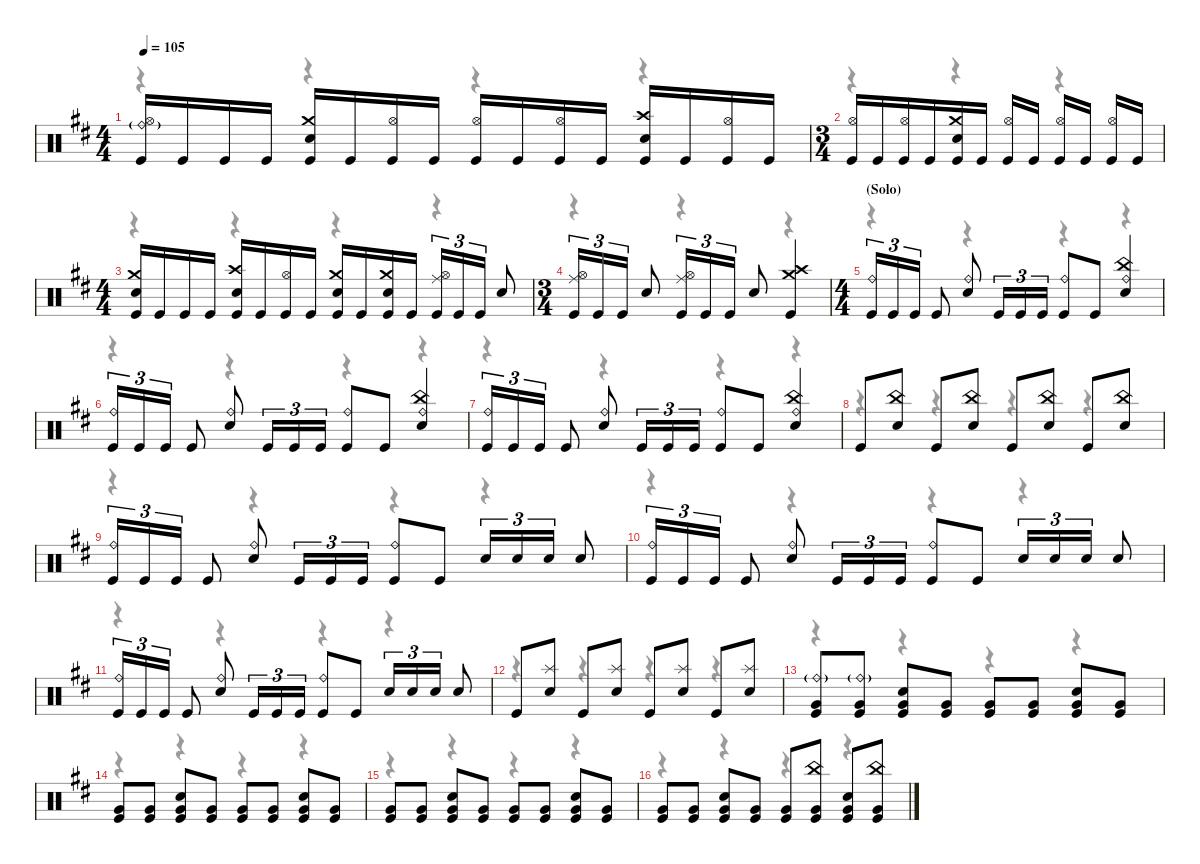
\defaultSystemsLayout 4
\hideDynamics
\bracketExtendMode nobrackets
\singleTrackTrackNamePolicy hidden
\multiTrackTrackNamePolicy hidden
\firstSystemTrackNameMode fullname
\firstSystemTrackNameOrientation horizontal
\otherSystemsTrackNameOrientation horizontal
\track ("Drums" "drm.") {instrument percussion}
\staff {score}
\articulation defaults
\voice
\ts (4 4)
\tempo 105
\clef neutral
\ks bminor
("Ride (bell)"{g acc forcenatural} "Hi-Hat (open)"{acc forcenatural} "Kick (hit)"{acc forcenatural}).16{dy mp beam Up} "Kick (hit)"{acc forcenatural}.16{dy f beam Up} "Kick (hit)"{acc forcenatural}.16{beam Up} "Kick (hit)"{acc forcenatural}.16{beam Up} ("Crash medium (hit)"{acc forcenatural} "Snare (hit) 2"{acc forcenatural} "Kick (hit)"{acc forcenatural}).16{dy mp beam Up} "Kick (hit)"{acc forcenatural}.16{dy f beam Up} ("Hi-Hat (open)"{acc forcenatural} "Kick (hit)"{acc forcenatural}).16{dy pp beam Up} "Kick (hit)"{acc forcenatural}.16{dy f beam Up} ("Hi-Hat (open)"{acc forcenatural} "Kick (hit)"{acc forcenatural}).16{dy mp beam Up} "Kick (hit)"{acc forcenatural}.16{dy f beam Up} ("Hi-Hat (open)"{acc forcenatural} "Kick (hit)"{acc forcenatural}).16{dy pp beam Up} "Kick (hit)"{acc forcenatural}.16{dy f beam Up} ("Crash high (hit)"{acc forcenatural} "Snare (hit) 2"{acc forcenatural} "Kick (hit)"{acc forcenatural}).16{dy mp beam Up} "Kick (hit)"{acc forcenatural}.16{dy f beam Up} ("Hi-Hat (open)"{acc forcenatural} "Kick (hit)"{acc forcenatural}).16{dy pp beam Up} "Kick (hit)"{acc forcenatural}.16{dy f beam Up} |
\ts (3 4)
\beaming (8 3 1 1 1)
("Hi-Hat (open)"{acc forcenatural} "Kick (hit)"{acc forcenatural}).16{dy mp beam Up} "Kick (hit)"{acc forcenatural}.16{dy f beam Up} ("Hi-Hat (open)"{acc forcenatural} "Kick (hit)"{acc forcenatural}).16{dy pp beam Up} "Kick (hit)"{acc forcenatural}.16{dy f beam Up} ("Crash medium (hit)"{acc forcenatural} "Snare (hit) 2"{acc forcenatural} "Kick (hit)"{acc forcenatural}).16{dy mp beam Up} "Kick (hit)"{acc forcenatural}.16{dy f beam Up} ("Hi-Hat (open)"{acc forcenatural} "Kick (hit)"{acc forcenatural}).16{dy pp beam Up} "Kick (hit)"{acc forcenatural}.16{dy f beam Up} ("Hi-Hat (open)"{acc forcenatural} "Kick (hit)"{acc forcenatural}).16{dy mp beam Up} "Kick (hit)"{acc forcenatural}.16{dy f beam Up} ("Hi-Hat (open)"{acc forcenatural} "Kick (hit)"{acc forcenatural}).16{dy pp beam Up} "Kick (hit)"{acc forcenatural}.16{dy f beam Up} |
\ts (4 4)
\beaming (8 2 2 2 2)
("Crash medium (hit)"{acc forcenatural} "Snare (hit) 2"{acc forcenatural} "Kick (hit)"{acc forcenatural}).16{dy mp beam Up} "Kick (hit)"{acc forcenatural}.16{dy f beam Up} "Kick (hit)"{acc forcenatural}.16{beam Up} "Kick (hit)"{acc forcenatural}.16{beam Up} ("Crash high (hit)"{acc forcenatural} "Snare (hit) 2"{acc forcenatural} "Kick (hit)"{acc forcenatural}).16{dy mp beam Up} "Kick (hit)"{acc forcenatural}.16{dy f beam Up} ("Hi-Hat (open)"{acc forcenatural} "Kick (hit)"{acc forcenatural}).16{dy pp beam Up} "Kick (hit)"{acc forcenatural}.16{dy f beam Up} ("Crash medium (hit)"{acc forcenatural} "Snare (hit) 2"{acc forcenatural} "Kick (hit)"{acc forcenatural}).16{dy mp beam Up} "Kick (hit)"{acc forcenatural}.16{dy f beam Up} ("Crash medium (hit)"{acc forcenatural} "Snare (hit) 2"{acc forcenatural} "Kick (hit)"{acc forcenatural}).16{dy mp beam Up} "Kick (hit)"{acc forcenatural}.16{dy f beam Up} ("Ride (middle)"{acc forcenatural} "Hi-Hat (open)"{acc forcenatural} "Kick (hit)"{acc forcenatural}).16{tu (3 2) dy mf beam Up} "Kick (hit)"{acc forcenatural}.16{tu (3 2) dy f beam Up} "Kick (hit)"{acc forcenatural}.16{tu (3 2) beam Up} "Snare (hit) 2"{acc forcenatural}.8{beam Up} |
\ts (3 4)
\beaming (8 3 1 1 1)
("Ride (middle)"{acc forcenatural} "Hi-Hat (open)"{acc forcenatural} "Kick (hit)"{acc forcenatural}).16{tu (3 2) dy mf beam Up} "Kick (hit)"{acc forcenatural}.16{tu (3 2) dy f beam Up} "Kick (hit)"{acc forcenatural}.16{tu (3 2) beam Up} "Snare (hit) 2"{acc forcenatural}.8{beam Up} ("Ride (middle)"{acc forcenatural} "Hi-Hat (open)"{acc forcenatural} "Kick (hit)"{acc forcenatural}).16{tu (3 2) dy mf beam Up} "Kick (hit)"{acc forcenatural}.16{tu (3 2) dy f beam Up} "Kick (hit)"{acc forcenatural}.16{tu (3 2) beam Up} "Snare (hit) 2"{acc forcenatural}.8{beam Up} ("Crash high (hit)"{acc forcenatural} "Crash medium (hit)"{acc forcenatural} "Kick (hit)"{acc forcenatural}).4{dy mp beam Up} |
\ts (4 4)
\beaming (8 2 2 2 2)
\section ("" "(Solo)")
("Ride (bell)"{acc forcenatural} "Kick (hit)"{acc forcenatural}).16{tu (3 2) dy mf beam Up} "Kick (hit)"{acc forcenatural}.16{tu (3 2) dy f beam Up} "Kick (hit)"{acc forcenatural}.16{tu (3 2) beam Up} "Kick (hit)"{acc forcenatural}.8{beam Up} ("Ride (bell)"{acc forcenatural} "Snare (hit) 2"{acc forcenatural}).8{dy mf beam Up} "Kick (hit)"{acc forcenatural}.16{tu (3 2) dy f beam Up} "Kick (hit)"{acc forcenatural}.16{tu (3 2) beam Up} "Kick (hit)"{acc forcenatural}.16{tu (3 2) beam Up} ("Ride (bell)"{acc forcenatural} "Kick (hit)"{acc forcenatural}).8{dy mf beam Up} "Kick (hit)"{acc forcenatural}.8{dy f beam Up} ("Ride (bell)"{acc forcenatural} "China (hit)"{acc forcenatural} "Snare (hit) 2"{acc forcenatural}).4{dy mf beam Up} |
("Ride (bell)"{acc forcenatural} "Kick (hit)"{acc forcenatural}).16{tu (3 2) beam Up} "Kick (hit)"{acc forcenatural}.16{tu (3 2) dy f beam Up} "Kick (hit)"{acc forcenatural}.16{tu (3 2) beam Up} "Kick (hit)"{acc forcenatural}.8{beam Up} ("Ride (bell)"{acc forcenatural} "Snare (hit) 2"{acc forcenatural}).8{dy mf beam Up} "Kick (hit)"{acc forcenatural}.16{tu (3 2) dy f beam Up} "Kick (hit)"{acc forcenatural}.16{tu (3 2) beam Up} "Kick (hit)"{acc forcenatural}.16{tu (3 2) beam Up} ("Ride (bell)"{acc forcenatural} "Kick (hit)"{acc forcenatural}).8{dy mf beam Up} "Kick (hit)"{acc forcenatural}.8{dy f beam Up} ("Ride (bell)"{acc forcenatural} "China (hit)"{acc forcenatural} "Snare (hit) 2"{acc forcenatural}).4{dy mf beam Up} |
("Ride (bell)"{acc forcenatural} "Kick (hit)"{acc forcenatural}).16{tu (3 2) beam Up} "Kick (hit)"{acc forcenatural}.16{tu (3 2) dy f beam Up} "Kick (hit)"{acc forcenatural}.16{tu (3 2) beam Up} "Kick (hit)"{acc forcenatural}.8{beam Up} ("Ride (bell)"{acc forcenatural} "Snare (hit) 2"{acc forcenatural}).8{dy mf beam Up} "Kick (hit)"{acc forcenatural}.16{tu (3 2) dy f beam Up} "Kick (hit)"{acc forcenatural}.16{tu (3 2) beam Up} "Kick (hit)"{acc forcenatural}.16{tu (3 2) beam Up} ("Ride (bell)"{acc forcenatural} "Kick (hit)"{acc forcenatural}).8{dy mf beam Up} "Kick (hit)"{acc forcenatural}.8{dy f beam Up} ("Ride (bell)"{acc forcenatural} "China (hit)"{acc forcenatural} "Snare (hit) 2"{acc forcenatural}).4{dy mf beam Up} |
"Kick (hit)"{acc forcenatural}.8{dy f beam Up} ("China (hit)"{acc forcenatural} "Snare (hit) 2"{acc forcenatural}).8{beam Up} "Kick (hit)"{acc forcenatural}.8{beam Up} ("China (hit)"{acc forcenatural} "Snare (hit) 2"{acc forcenatural}).8{beam Up} "Kick (hit)"{acc forcenatural}.8{beam Up} ("China (hit)"{acc forcenatural} "Snare (hit) 2"{acc forcenatural}).8{beam Up} "Kick (hit)"{acc forcenatural}.8{beam Up} ("China (hit)"{acc forcenatural} "Snare (hit) 2"{acc forcenatural}).8{beam Up} |
("Ride (bell)"{acc forcenatural} "Kick (hit)"{acc forcenatural}).16{tu (3 2) dy mf beam Up} "Kick (hit)"{acc forcenatural}.16{tu (3 2) dy f beam Up} "Kick (hit)"{acc forcenatural}.16{tu (3 2) beam Up} "Kick (hit)"{acc forcenatural}.8{beam Up} ("Ride (bell)"{acc forcenatural} "Snare (hit) 2"{acc forcenatural}).8{dy mf beam Up} "Kick (hit)"{acc forcenatural}.16{tu (3 2) dy f beam Up} "Kick (hit)"{acc forcenatural}.16{tu (3 2) beam Up} "Kick (hit)"{acc forcenatural}.16{tu (3 2) beam Up} ("Ride (bell)"{acc forcenatural} "Kick (hit)"{acc forcenatural}).8{dy mf beam Up} "Kick (hit)"{acc forcenatural}.8{dy f beam Up} "Snare (hit) 2"{acc forcenatural}.16{tu (3 2) dy mf beam Up} "Snare (hit) 2"{acc forcenatural}.16{tu (3 2) beam Up} "Snare (hit) 2"{acc forcenatural}.16{tu (3 2) beam Up} "Snare (hit) 2"{acc forcenatural}.8{beam Up} |
("Ride (bell)"{acc forcenatural} "Kick (hit)"{acc forcenatural}).16{tu (3 2) beam Up} "Kick (hit)"{acc forcenatural}.16{tu (3 2) dy f beam Up} "Kick (hit)"{acc forcenatural}.16{tu (3 2) beam Up} "Kick (hit)"{acc forcenatural}.8{beam Up} ("Ride (bell)"{acc forcenatural} "Snare (hit) 2"{acc forcenatural}).8{dy mf beam Up} "Kick (hit)"{acc forcenatural}.16{tu (3 2) dy f beam Up} "Kick (hit)"{acc forcenatural}.16{tu (3 2) beam Up} "Kick (hit)"{acc forcenatural}.16{tu (3 2) beam Up} ("Ride (bell)"{acc forcenatural} "Kick (hit)"{acc forcenatural}).8{dy mf beam Up} "Kick (hit)"{acc forcenatural}.8{dy f beam Up} "Snare (hit) 2"{acc forcenatural}.16{tu (3 2) dy mf beam Up} "Snare (hit) 2"{acc forcenatural}.16{tu (3 2) beam Up} "Snare (hit) 2"{acc forcenatural}.16{tu (3 2) beam Up} "Snare (hit) 2"{acc forcenatural}.8{beam Up} |
("Ride (bell)"{acc forcenatural} "Kick (hit)"{acc forcenatural}).16{tu (3 2) beam Up} "Kick (hit)"{acc forcenatural}.16{tu (3 2) dy f beam Up} "Kick (hit)"{acc forcenatural}.16{tu (3 2) beam Up} "Kick (hit)"{acc forcenatural}.8{beam Up} ("Ride (bell)"{acc forcenatural} "Snare (hit) 2"{acc forcenatural}).8{dy mf beam Up} "Kick (hit)"{acc forcenatural}.16{tu (3 2) dy f beam Up} "Kick (hit)"{acc forcenatural}.16{tu (3 2) beam Up} "Kick (hit)"{acc forcenatural}.16{tu (3 2) beam Up} ("Ride (bell)"{acc forcenatural} "Kick (hit)"{acc forcenatural}).8{dy mf beam Up} "Kick (hit)"{acc forcenatural}.8{dy f beam Up} "Snare (hit) 2"{acc forcenatural}.16{tu (3 2) beam Up} "Snare (hit) 2"{acc forcenatural}.16{tu (3 2) beam Up} "Snare (hit) 2"{acc forcenatural}.16{tu (3 2) dy mf beam Up} "Snare (hit) 2"{acc forcenatural}.8{beam Up} |
"Kick (hit)"{acc forcenatural}.8{dy f beam Up} ("Splash (hit)"{acc forcenatural} "Snare (hit) 2"{acc forcenatural}).8{beam Up} "Kick (hit)"{acc forcenatural}.8{beam Up} ("Splash (hit)"{acc forcenatural} "Snare (hit) 2"{acc forcenatural}).8{beam Up} "Kick (hit)"{acc forcenatural}.8{beam Up} ("Splash (hit)"{acc forcenatural} "Snare (hit) 2"{acc forcenatural}).8{beam Up} "Kick (hit)"{acc forcenatural}.8{beam Up} ("Splash (hit)"{acc forcenatural} "Snare (hit) 2"{acc forcenatural}).8{beam Up} |
("Ride (bell)"{g acc forcenatural} "Very Low Tom (hit)"{acc forcenatural} "Kick (hit)"{acc forcenatural}).8{beam Up} ("Ride (bell)"{g acc forcenatural} "Very Low Tom (hit)"{acc forcenatural} "Kick (hit)"{acc forcenatural}).8{dy p beam Up} ("Snare (hit) 2"{acc forcenatural} "Very Low Tom (hit)"{acc forcenatural} "Kick (hit)"{acc forcenatural}).8{dy f beam Up} ("Very Low Tom (hit)"{acc forcenatural} "Kick (hit)"{acc forcenatural}).8{dy p beam Up} ("Very Low Tom (hit)"{acc forcenatural} "Kick (hit)"{acc forcenatural}).8{dy f beam Up} ("Very Low Tom (hit)"{acc forcenatural} "Kick (hit)"{acc forcenatural}).8{dy p beam Up} ("Snare (hit) 2"{acc forcenatural} "Very Low Tom (hit)"{acc forcenatural} "Kick (hit)"{acc forcenatural}).8{dy f beam Up} ("Very Low Tom (hit)"{acc forcenatural} "Kick (hit)"{acc forcenatural}).8{dy p beam Up} |
("Very Low Tom (hit)"{acc forcenatural} "Kick (hit)"{acc forcenatural}).8{dy f beam Up} ("Very Low Tom (hit)"{acc forcenatural} "Kick (hit)"{acc forcenatural}).8{dy p beam Up} ("Snare (hit) 2"{acc forcenatural} "Very Low Tom (hit)"{acc forcenatural} "Kick (hit)"{acc forcenatural}).8{dy f beam Up} ("Very Low Tom (hit)"{acc forcenatural} "Kick (hit)"{acc forcenatural}).8{dy p beam Up} ("Very Low Tom (hit)"{acc forcenatural} "Kick (hit)"{acc forcenatural}).8{dy f beam Up} ("Very Low Tom (hit)"{acc forcenatural} "Kick (hit)"{acc forcenatural}).8{dy p beam Up} ("Snare (hit) 2"{acc forcenatural} "Very Low Tom (hit)"{acc forcenatural} "Kick (hit)"{acc forcenatural}).8{dy f beam Up} ("Very Low Tom (hit)"{acc forcenatural} "Kick (hit)"{acc forcenatural}).8{dy p beam Up} |
("Very Low Tom (hit)"{acc forcenatural} "Kick (hit)"{acc forcenatural}).8{dy f beam Up} ("Very Low Tom (hit)"{acc forcenatural} "Kick (hit)"{acc forcenatural}).8{dy p beam Up} ("Snare (hit) 2"{acc forcenatural} "Very Low Tom (hit)"{acc forcenatural} "Kick (hit)"{acc forcenatural}).8{dy f beam Up} ("Very Low Tom (hit)"{acc forcenatural} "Kick (hit)"{acc forcenatural}).8{dy p beam Up} ("Very Low Tom (hit)"{acc forcenatural} "Kick (hit)"{acc forcenatural}).8{dy f beam Up} ("Very Low Tom (hit)"{acc forcenatural} "Kick (hit)"{acc forcenatural}).8{dy p beam Up} ("Snare (hit) 2"{acc forcenatural} "Very Low Tom (hit)"{acc forcenatural} "Kick (hit)"{acc forcenatural}).8{dy f beam Up} ("Very Low Tom (hit)"{acc forcenatural} "Kick (hit)"{acc forcenatural}).8{dy p beam Up} |
("Very Low Tom (hit)"{acc forcenatural} "Kick (hit)"{acc forcenatural}).8{dy f beam Up} ("Very Low Tom (hit)"{acc forcenatural} "Kick (hit)"{acc forcenatural}).8{dy p beam Up} ("Snare (hit) 2"{acc forcenatural} "Very Low Tom (hit)"{acc forcenatural} "Kick (hit)"{acc forcenatural}).8{dy f beam Up} ("Very Low Tom (hit)"{acc forcenatural} "Kick (hit)"{acc forcenatural}).8{dy p beam Up} ("Very Low Tom (hit)"{acc forcenatural} "Kick (hit)"{acc forcenatural}).8{dy f beam Up} ("China (hit)"{acc forcenatural} "Very Low Tom (hit)"{acc forcenatural} "Kick (hit)"{acc forcenatural}).8{dy mf beam Up} ("Snare (hit) 2"{acc forcenatural} "Very Low Tom (hit)"{acc forcenatural} "Kick (hit)"{acc forcenatural}).8{dy f beam Up} ("China (hit)"{acc forcenatural} "Very Low Tom (hit)"{acc forcenatural} "Kick (hit)"{acc forcenatural}).8{dy mf beam Up}
\voice
\clef neutral
\ottava regular
\simile none
\ks bminor
r.4{dy mf beam Down} r.4{beam Down} r.4{beam Down} r.4{beam Down} |
r.4{beam Down} r.4{beam Down} r.4{beam Down} |
r.4{beam Down} r.4{beam Down} r.4{beam Down} r.4{beam Down} |
r.4{beam Down} r.4{beam Down} r.4{beam Down} |
r.4{beam Down} r.4{beam Down} r.4{beam Down} r.4{beam Down} |
r.4{beam Down} r.4{beam Down} r.4{beam Down} r.4{beam Down} |
r.4{beam Down} r.4{beam Down} r.4{beam Down} r.4{beam Down} |
r.4{beam Down} r.4{beam Down} r.4{beam Down} r.4{beam Down} |
r.4{beam Down} r.4{beam Down} r.4{beam Down} r.4{beam Down} |
r.4{beam Down} r.4{beam Down} r.4{beam Down} r.4{beam Down} |
r.4{beam Down} r.4{beam Down} r.4{beam Down} r.4{beam Down} |
r.4{beam Down} r.4{beam Down} r.4{beam Down} r.4{beam Down} |
r.4{beam Down} r.4{beam Down} r.4{beam Down} r.4{beam Down} |
r.4{beam Down} r.4{beam Down} r.4{beam Down} r.4{beam Down} |
r.4{beam Down} r.4{beam Down} r.4{beam Down} r.4{beam Down} |
r.4{beam Down} r.4{beam Down} r.4{beam Down} r.4{beam Down}
